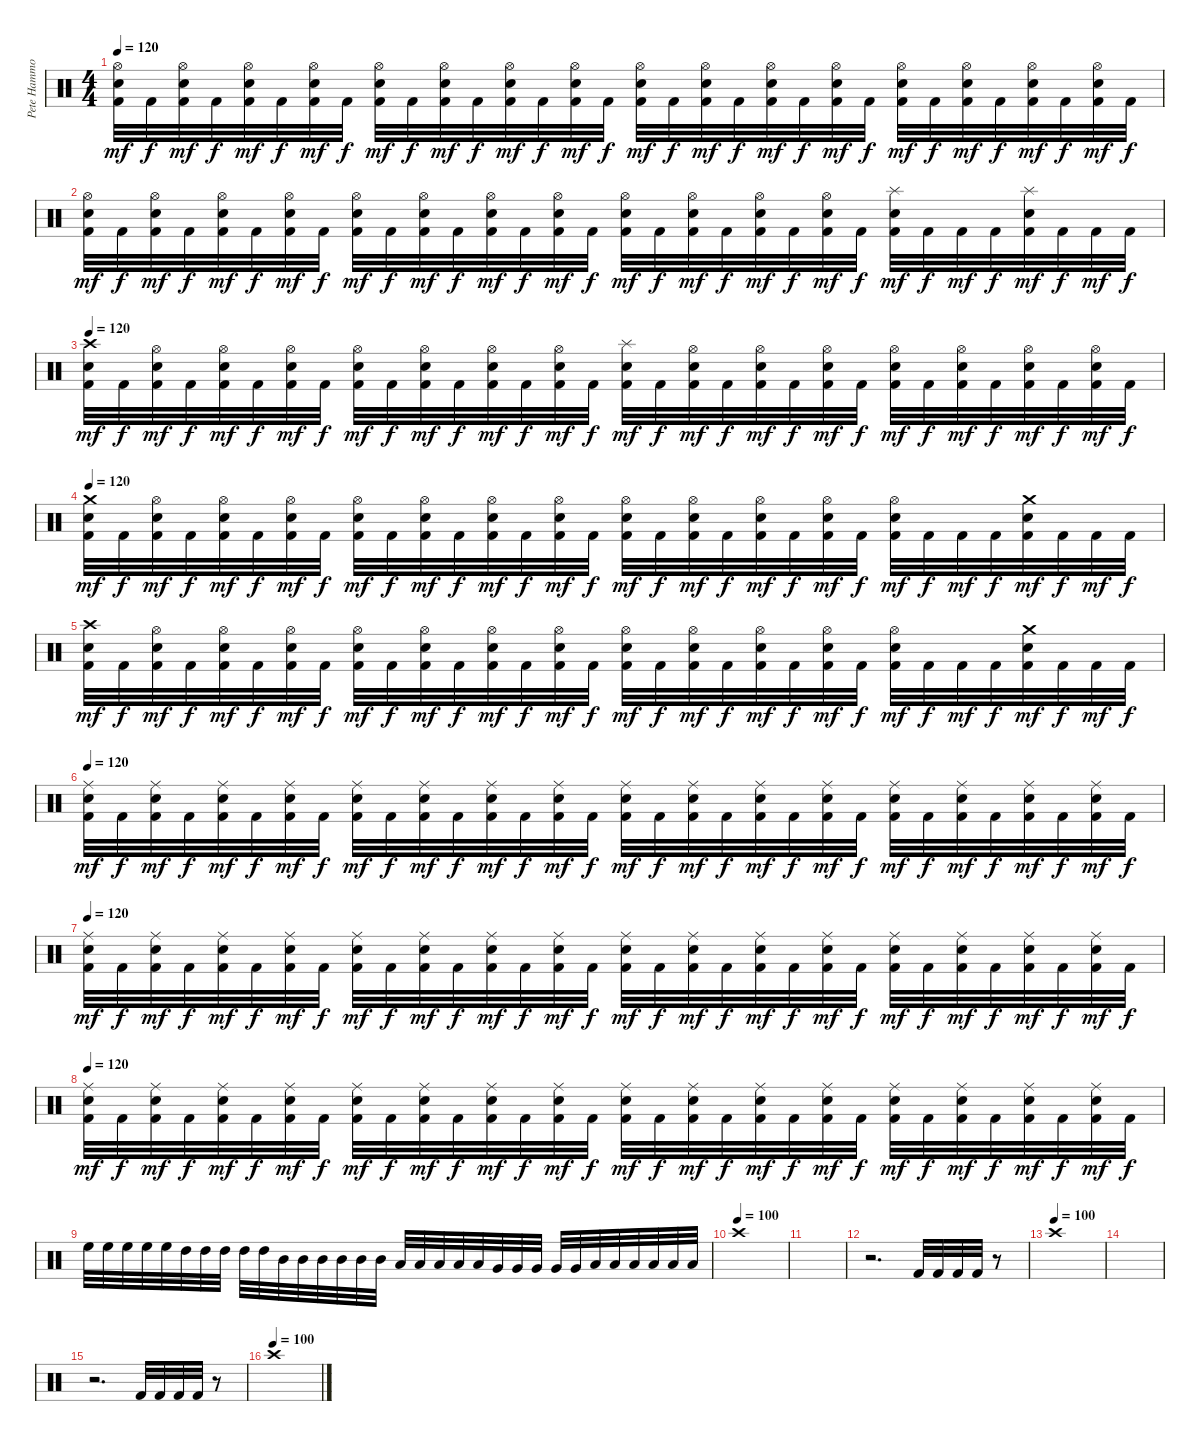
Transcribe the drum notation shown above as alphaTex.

\track ("Pete Hammoura" "Pete Hammo") {instrument percussion}
\staff {score}
\articulation defaults
\ts (4 4)
\tempo 120
\clef neutral
\ks c
("Hi-Hat (open)" "Electric Snare (hit)" "Kick (hit) 2").32{dy mf} "Kick (hit) 2".32{dy f} ("Hi-Hat (open)" "Electric Snare (hit)" "Kick (hit) 2").32{dy mf} "Kick (hit) 2".32{dy f} ("Hi-Hat (open)" "Electric Snare (hit)" "Kick (hit) 2").32{dy mf} "Kick (hit) 2".32{dy f} ("Hi-Hat (open)" "Electric Snare (hit)" "Kick (hit) 2").32{dy mf} "Kick (hit) 2".32{dy f} ("Hi-Hat (open)" "Electric Snare (hit)" "Kick (hit) 2").32{dy mf} "Kick (hit) 2".32{dy f} ("Hi-Hat (open)" "Electric Snare (hit)" "Kick (hit) 2").32{dy mf} "Kick (hit) 2".32{dy f} ("Hi-Hat (open)" "Electric Snare (hit)" "Kick (hit) 2").32{dy mf} "Kick (hit) 2".32{dy f} ("Hi-Hat (open)" "Electric Snare (hit)" "Kick (hit) 2").32{dy mf} "Kick (hit) 2".32{dy f} ("Hi-Hat (open)" "Electric Snare (hit)" "Kick (hit) 2").32{dy mf} "Kick (hit) 2".32{dy f} ("Hi-Hat (open)" "Electric Snare (hit)" "Kick (hit) 2").32{dy mf} "Kick (hit) 2".32{dy f} ("Hi-Hat (open)" "Electric Snare (hit)" "Kick (hit) 2").32{dy mf} "Kick (hit) 2".32{dy f} ("Hi-Hat (open)" "Electric Snare (hit)" "Kick (hit) 2").32{dy mf} "Kick (hit) 2".32{dy f} ("Hi-Hat (open)" "Electric Snare (hit)" "Kick (hit) 2").32{dy mf} "Kick (hit) 2".32{dy f} ("Hi-Hat (open)" "Electric Snare (hit)" "Kick (hit) 2").32{dy mf} "Kick (hit) 2".32{dy f} ("Hi-Hat (open)" "Electric Snare (hit)" "Kick (hit) 2").32{dy mf} "Kick (hit) 2".32{dy f} ("Hi-Hat (open)" "Electric Snare (hit)" "Kick (hit) 2").32{dy mf} "Kick (hit) 2".32{dy f} |
("Hi-Hat (open)" "Electric Snare (hit)" "Kick (hit) 2").32{dy mf} "Kick (hit) 2".32{dy f} ("Hi-Hat (open)" "Electric Snare (hit)" "Kick (hit) 2").32{dy mf} "Kick (hit) 2".32{dy f} ("Hi-Hat (open)" "Electric Snare (hit)" "Kick (hit) 2").32{dy mf} "Kick (hit) 2".32{dy f} ("Hi-Hat (open)" "Electric Snare (hit)" "Kick (hit) 2").32{dy mf} "Kick (hit) 2".32{dy f} ("Hi-Hat (open)" "Electric Snare (hit)" "Kick (hit) 2").32{dy mf} "Kick (hit) 2".32{dy f} ("Hi-Hat (open)" "Electric Snare (hit)" "Kick (hit) 2").32{dy mf} "Kick (hit) 2".32{dy f} ("Hi-Hat (open)" "Electric Snare (hit)" "Kick (hit) 2").32{dy mf} "Kick (hit) 2".32{dy f} ("Hi-Hat (open)" "Electric Snare (hit)" "Kick (hit) 2").32{dy mf} "Kick (hit) 2".32{dy f} ("Hi-Hat (open)" "Electric Snare (hit)" "Kick (hit) 2").32{dy mf} "Kick (hit) 2".32{dy f} ("Hi-Hat (open)" "Electric Snare (hit)" "Kick (hit) 2").32{dy mf} "Kick (hit) 2".32{dy f} ("Hi-Hat (open)" "Electric Snare (hit)" "Kick (hit) 2").32{dy mf} "Kick (hit) 2".32{dy f} ("Hi-Hat (open)" "Electric Snare (hit)" "Kick (hit) 2").32{dy mf} "Kick (hit) 2".32{dy f} ("Splash (hit)" "Electric Snare (hit)" "Kick (hit) 2").32{dy mf} "Kick (hit) 2".32{dy f} "Kick (hit) 2".32{dy mf} "Kick (hit) 2".32{dy f} ("Splash (hit)" "Electric Snare (hit)" "Kick (hit) 2").32{dy mf} "Kick (hit) 2".32{dy f} "Kick (hit) 2".32{dy mf} "Kick (hit) 2".32{dy f} |
\tempo 120
("Crash high (hit)" "Electric Snare (hit)" "Kick (hit) 2").32{dy mf} "Kick (hit) 2".32{dy f} ("Hi-Hat (open)" "Electric Snare (hit)" "Kick (hit) 2").32{dy mf} "Kick (hit) 2".32{dy f} ("Hi-Hat (open)" "Electric Snare (hit)" "Kick (hit) 2").32{dy mf} "Kick (hit) 2".32{dy f} ("Hi-Hat (open)" "Electric Snare (hit)" "Kick (hit) 2").32{dy mf} "Kick (hit) 2".32{dy f} ("Hi-Hat (open)" "Electric Snare (hit)" "Kick (hit) 2").32{dy mf} "Kick (hit) 2".32{dy f} ("Hi-Hat (open)" "Electric Snare (hit)" "Kick (hit) 2").32{dy mf} "Kick (hit) 2".32{dy f} ("Hi-Hat (open)" "Electric Snare (hit)" "Kick (hit) 2").32{dy mf} "Kick (hit) 2".32{dy f} ("Hi-Hat (open)" "Electric Snare (hit)" "Kick (hit) 2").32{dy mf} "Kick (hit) 2".32{dy f} ("Splash (hit)" "Electric Snare (hit)" "Kick (hit) 2").32{dy mf} "Kick (hit) 2".32{dy f} ("Hi-Hat (open)" "Electric Snare (hit)" "Kick (hit) 2").32{dy mf} "Kick (hit) 2".32{dy f} ("Hi-Hat (open)" "Electric Snare (hit)" "Kick (hit) 2").32{dy mf} "Kick (hit) 2".32{dy f} ("Hi-Hat (open)" "Electric Snare (hit)" "Kick (hit) 2").32{dy mf} "Kick (hit) 2".32{dy f} ("Hi-Hat (open)" "Electric Snare (hit)" "Kick (hit) 2").32{dy mf} "Kick (hit) 2".32{dy f} ("Hi-Hat (open)" "Electric Snare (hit)" "Kick (hit) 2").32{dy mf} "Kick (hit) 2".32{dy f} ("Hi-Hat (open)" "Electric Snare (hit)" "Kick (hit) 2").32{dy mf} "Kick (hit) 2".32{dy f} ("Hi-Hat (open)" "Electric Snare (hit)" "Kick (hit) 2").32{dy mf} "Kick (hit) 2".32{dy f} |
\tempo 120
("Crash medium (hit)" "Electric Snare (hit)" "Kick (hit) 2").32{dy mf} "Kick (hit) 2".32{dy f} ("Hi-Hat (open)" "Electric Snare (hit)" "Kick (hit) 2").32{dy mf} "Kick (hit) 2".32{dy f} ("Hi-Hat (open)" "Electric Snare (hit)" "Kick (hit) 2").32{dy mf} "Kick (hit) 2".32{dy f} ("Hi-Hat (open)" "Electric Snare (hit)" "Kick (hit) 2").32{dy mf} "Kick (hit) 2".32{dy f} ("Hi-Hat (open)" "Electric Snare (hit)" "Kick (hit) 2").32{dy mf} "Kick (hit) 2".32{dy f} ("Hi-Hat (open)" "Electric Snare (hit)" "Kick (hit) 2").32{dy mf} "Kick (hit) 2".32{dy f} ("Hi-Hat (open)" "Electric Snare (hit)" "Kick (hit) 2").32{dy mf} "Kick (hit) 2".32{dy f} ("Hi-Hat (open)" "Electric Snare (hit)" "Kick (hit) 2").32{dy mf} "Kick (hit) 2".32{dy f} ("Hi-Hat (open)" "Electric Snare (hit)" "Kick (hit) 2").32{dy mf} "Kick (hit) 2".32{dy f} ("Hi-Hat (open)" "Electric Snare (hit)" "Kick (hit) 2").32{dy mf} "Kick (hit) 2".32{dy f} ("Hi-Hat (open)" "Electric Snare (hit)" "Kick (hit) 2").32{dy mf} "Kick (hit) 2".32{dy f} ("Hi-Hat (open)" "Electric Snare (hit)" "Kick (hit) 2").32{dy mf} "Kick (hit) 2".32{dy f} ("Hi-Hat (open)" "Electric Snare (hit)" "Kick (hit) 2").32{dy mf} "Kick (hit) 2".32{dy f} "Kick (hit) 2".32{dy mf} "Kick (hit) 2".32{dy f} ("Crash medium (hit)" "Electric Snare (hit)" "Kick (hit) 2").32{dy mf} "Kick (hit) 2".32{dy f} "Kick (hit) 2".32{dy mf} "Kick (hit) 2".32{dy f} |
("Crash high (hit)" "Electric Snare (hit)" "Kick (hit) 2").32{dy mf} "Kick (hit) 2".32{dy f} ("Hi-Hat (open)" "Electric Snare (hit)" "Kick (hit) 2").32{dy mf} "Kick (hit) 2".32{dy f} ("Hi-Hat (open)" "Electric Snare (hit)" "Kick (hit) 2").32{dy mf} "Kick (hit) 2".32{dy f} ("Hi-Hat (open)" "Electric Snare (hit)" "Kick (hit) 2").32{dy mf} "Kick (hit) 2".32{dy f} ("Hi-Hat (open)" "Electric Snare (hit)" "Kick (hit) 2").32{dy mf} "Kick (hit) 2".32{dy f} ("Hi-Hat (open)" "Electric Snare (hit)" "Kick (hit) 2").32{dy mf} "Kick (hit) 2".32{dy f} ("Hi-Hat (open)" "Electric Snare (hit)" "Kick (hit) 2").32{dy mf} "Kick (hit) 2".32{dy f} ("Hi-Hat (open)" "Electric Snare (hit)" "Kick (hit) 2").32{dy mf} "Kick (hit) 2".32{dy f} ("Hi-Hat (open)" "Electric Snare (hit)" "Kick (hit) 2").32{dy mf} "Kick (hit) 2".32{dy f} ("Hi-Hat (open)" "Electric Snare (hit)" "Kick (hit) 2").32{dy mf} "Kick (hit) 2".32{dy f} ("Hi-Hat (open)" "Electric Snare (hit)" "Kick (hit) 2").32{dy mf} "Kick (hit) 2".32{dy f} ("Hi-Hat (open)" "Electric Snare (hit)" "Kick (hit) 2").32{dy mf} "Kick (hit) 2".32{dy f} ("Hi-Hat (open)" "Electric Snare (hit)" "Kick (hit) 2").32{dy mf} "Kick (hit) 2".32{dy f} "Kick (hit) 2".32{dy mf} "Kick (hit) 2".32{dy f} ("Crash medium (hit)" "Electric Snare (hit)" "Kick (hit) 2").32{dy mf} "Kick (hit) 2".32{dy f} "Kick (hit) 2".32{dy mf} "Kick (hit) 2".32{dy f} |
\tempo 120
("Ride (middle)" "Electric Snare (hit)" "Kick (hit) 2").32{dy mf} "Kick (hit) 2".32{dy f} ("Ride (middle)" "Electric Snare (hit)" "Kick (hit) 2").32{dy mf} "Kick (hit) 2".32{dy f} ("Ride (middle)" "Electric Snare (hit)" "Kick (hit) 2").32{dy mf} "Kick (hit) 2".32{dy f} ("Ride (middle)" "Electric Snare (hit)" "Kick (hit) 2").32{dy mf} "Kick (hit) 2".32{dy f} ("Ride (middle)" "Electric Snare (hit)" "Kick (hit) 2").32{dy mf} "Kick (hit) 2".32{dy f} ("Ride (middle)" "Electric Snare (hit)" "Kick (hit) 2").32{dy mf} "Kick (hit) 2".32{dy f} ("Ride (middle)" "Electric Snare (hit)" "Kick (hit) 2").32{dy mf} "Kick (hit) 2".32{dy f} ("Ride (middle)" "Electric Snare (hit)" "Kick (hit) 2").32{dy mf} "Kick (hit) 2".32{dy f} ("Ride (middle)" "Electric Snare (hit)" "Kick (hit) 2").32{dy mf} "Kick (hit) 2".32{dy f} ("Ride (middle)" "Electric Snare (hit)" "Kick (hit) 2").32{dy mf} "Kick (hit) 2".32{dy f} ("Ride (middle)" "Electric Snare (hit)" "Kick (hit) 2").32{dy mf} "Kick (hit) 2".32{dy f} ("Ride (middle)" "Electric Snare (hit)" "Kick (hit) 2").32{dy mf} "Kick (hit) 2".32{dy f} ("Ride (middle)" "Electric Snare (hit)" "Kick (hit) 2").32{dy mf} "Kick (hit) 2".32{dy f} ("Ride (middle)" "Electric Snare (hit)" "Kick (hit) 2").32{dy mf} "Kick (hit) 2".32{dy f} ("Ride (middle)" "Electric Snare (hit)" "Kick (hit) 2").32{dy mf} "Kick (hit) 2".32{dy f} ("Ride (middle)" "Electric Snare (hit)" "Kick (hit) 2").32{dy mf} "Kick (hit) 2".32{dy f} |
\tempo 120
("Ride (middle)" "Electric Snare (hit)" "Kick (hit) 2").32{dy mf} "Kick (hit) 2".32{dy f} ("Ride (middle)" "Electric Snare (hit)" "Kick (hit) 2").32{dy mf} "Kick (hit) 2".32{dy f} ("Ride (middle)" "Electric Snare (hit)" "Kick (hit) 2").32{dy mf} "Kick (hit) 2".32{dy f} ("Ride (middle)" "Electric Snare (hit)" "Kick (hit) 2").32{dy mf} "Kick (hit) 2".32{dy f} ("Ride (middle)" "Electric Snare (hit)" "Kick (hit) 2").32{dy mf} "Kick (hit) 2".32{dy f} ("Ride (middle)" "Electric Snare (hit)" "Kick (hit) 2").32{dy mf} "Kick (hit) 2".32{dy f} ("Ride (middle)" "Electric Snare (hit)" "Kick (hit) 2").32{dy mf} "Kick (hit) 2".32{dy f} ("Ride (middle)" "Electric Snare (hit)" "Kick (hit) 2").32{dy mf} "Kick (hit) 2".32{dy f} ("Ride (middle)" "Electric Snare (hit)" "Kick (hit) 2").32{dy mf} "Kick (hit) 2".32{dy f} ("Ride (middle)" "Electric Snare (hit)" "Kick (hit) 2").32{dy mf} "Kick (hit) 2".32{dy f} ("Ride (middle)" "Electric Snare (hit)" "Kick (hit) 2").32{dy mf} "Kick (hit) 2".32{dy f} ("Ride (middle)" "Electric Snare (hit)" "Kick (hit) 2").32{dy mf} "Kick (hit) 2".32{dy f} ("Ride (middle)" "Electric Snare (hit)" "Kick (hit) 2").32{dy mf} "Kick (hit) 2".32{dy f} ("Ride (middle)" "Electric Snare (hit)" "Kick (hit) 2").32{dy mf} "Kick (hit) 2".32{dy f} ("Ride (middle)" "Electric Snare (hit)" "Kick (hit) 2").32{dy mf} "Kick (hit) 2".32{dy f} ("Ride (middle)" "Electric Snare (hit)" "Kick (hit) 2").32{dy mf} "Kick (hit) 2".32{dy f} |
\tempo 120
("Ride (middle)" "Electric Snare (hit)" "Kick (hit) 2").32{dy mf} "Kick (hit) 2".32{dy f} ("Ride (middle)" "Electric Snare (hit)" "Kick (hit) 2").32{dy mf} "Kick (hit) 2".32{dy f} ("Ride (middle)" "Electric Snare (hit)" "Kick (hit) 2").32{dy mf} "Kick (hit) 2".32{dy f} ("Ride (middle)" "Electric Snare (hit)" "Kick (hit) 2").32{dy mf} "Kick (hit) 2".32{dy f} ("Ride (middle)" "Electric Snare (hit)" "Kick (hit) 2").32{dy mf} "Kick (hit) 2".32{dy f} ("Ride (middle)" "Electric Snare (hit)" "Kick (hit) 2").32{dy mf} "Kick (hit) 2".32{dy f} ("Ride (middle)" "Electric Snare (hit)" "Kick (hit) 2").32{dy mf} "Kick (hit) 2".32{dy f} ("Ride (middle)" "Electric Snare (hit)" "Kick (hit) 2").32{dy mf} "Kick (hit) 2".32{dy f} ("Ride (middle)" "Electric Snare (hit)" "Kick (hit) 2").32{dy mf} "Kick (hit) 2".32{dy f} ("Ride (middle)" "Electric Snare (hit)" "Kick (hit) 2").32{dy mf} "Kick (hit) 2".32{dy f} ("Ride (middle)" "Electric Snare (hit)" "Kick (hit) 2").32{dy mf} "Kick (hit) 2".32{dy f} ("Ride (middle)" "Electric Snare (hit)" "Kick (hit) 2").32{dy mf} "Kick (hit) 2".32{dy f} ("Ride (middle)" "Electric Snare (hit)" "Kick (hit) 2").32{dy mf} "Kick (hit) 2".32{dy f} ("Ride (middle)" "Electric Snare (hit)" "Kick (hit) 2").32{dy mf} "Kick (hit) 2".32{dy f} ("Ride (middle)" "Electric Snare (hit)" "Kick (hit) 2").32{dy mf} "Kick (hit) 2".32{dy f} ("Ride (middle)" "Electric Snare (hit)" "Kick (hit) 2").32{dy mf} "Kick (hit) 2".32{dy f} |
"High Floor Tom (hit)".32 "High Floor Tom (hit)".32 "High Floor Tom (hit)".32 "High Floor Tom (hit)".32 "High Floor Tom (hit)".32 "High Tom (hit)".32 "High Tom (hit)".32 "High Tom (hit)".32 "High Tom (hit)".32 "High Tom (hit)".32 "Mid Tom (hit)".32 "Mid Tom (hit)".32 "Mid Tom (hit)".32 "Mid Tom (hit)".32 "Mid Tom (hit)".32 "Mid Tom (hit)".32 "Low Tom (hit)".32 "Low Tom (hit)".32 "Low Tom (hit)".32 "Low Tom (hit)".32 "Low Tom (hit)".32 "Very Low Tom (hit)".32 "Very Low Tom (hit)".32 "Very Low Tom (hit)".32 "Very Low Tom (hit)".32 "Very Low Tom (hit)".32 "Low Floor Tom (hit)".32 "Low Floor Tom (hit)".32 "Low Floor Tom (hit)".32 "Low Floor Tom (hit)".32 "Low Floor Tom (hit)".32 "Low Floor Tom (hit)".32 |
\tempo (100)
"Crash high (hit)".1 |
|
r.2{d} "Kick (hit) 2".32 "Kick (hit) 2".32 "Kick (hit) 2".32 "Kick (hit) 2".32 r.8 |
\tempo (100)
"Crash high (hit)".1 |
|
r.2{d} "Kick (hit) 2".32 "Kick (hit) 2".32 "Kick (hit) 2".32 "Kick (hit) 2".32 r.8 |
\tempo (100)
"Crash high (hit)".1
